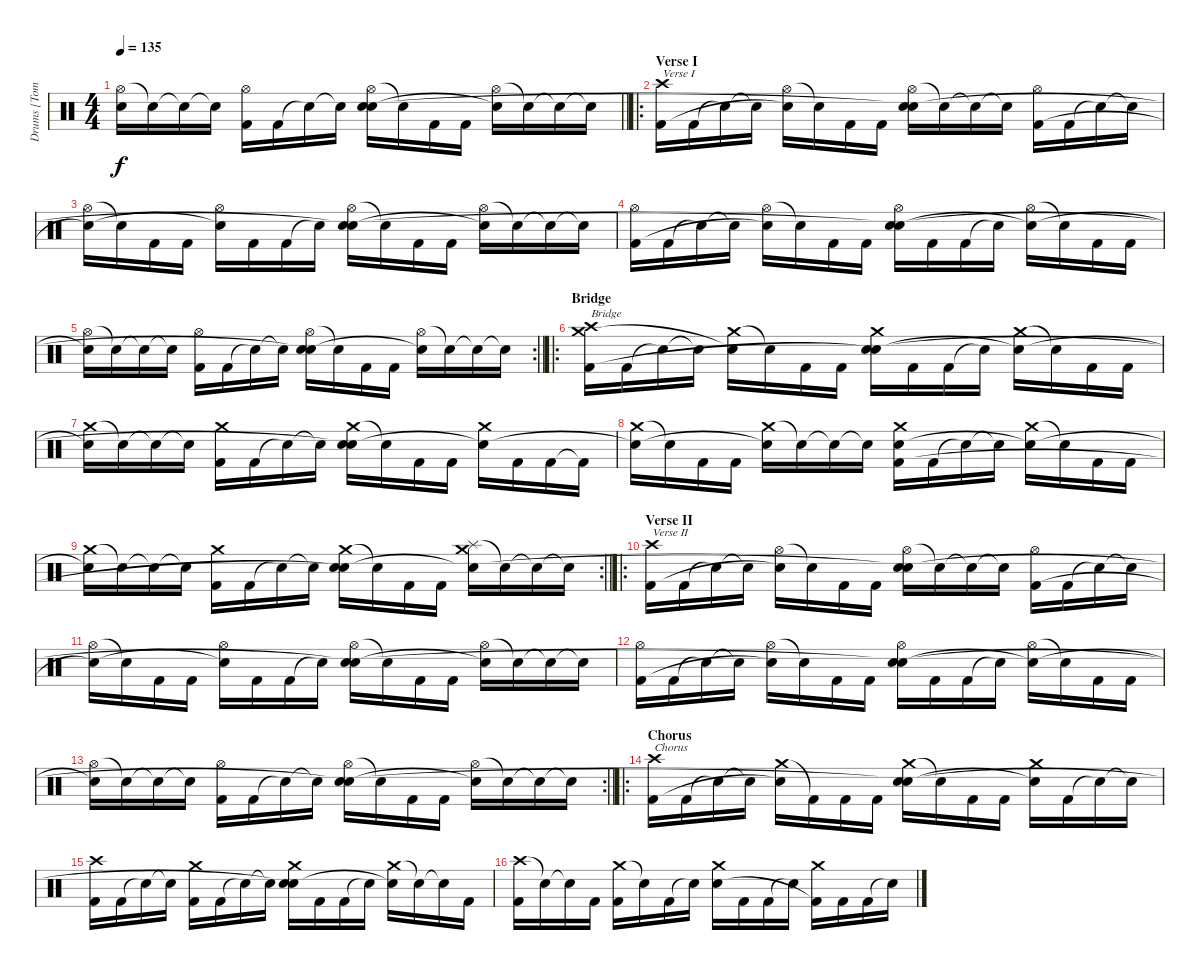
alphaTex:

\track ("Drums [Tomas Haake]" "Drums [Tom") {instrument percussion}
\staff {score}
\articulation defaults
\ts (4 4)
\tempo 135
\clef neutral
\barLineRight lightlight
\ks c
("Hi-Hat (open)" "Snare (hit)"{t}).16{dy f} "Snare (hit)"{t}.16 "Snare (hit)"{t}.16 "Snare (hit)"{t}.16 ("Hi-Hat (open)" "Kick (hit) 2").16 "Kick (hit) 2".16 "Snare (hit)"{t}.16 "Snare (hit)"{t}.16 ("Hi-Hat (open)" "Electric Snare (hit)" "Snare (hit)"{t}).16 "Snare (hit)"{t}.16 "Kick (hit) 2".16 "Kick (hit) 2".16 ("Hi-Hat (open)" "Snare (hit)"{t}).16 "Snare (hit)"{t}.16 "Snare (hit)"{t}.16 "Snare (hit)"{t}.16 |
\ro
\section ("" "Verse I")
("Crash high (hit)" "Kick (hit) 2").16{txt "Verse I"} "Kick (hit) 2".16 "Snare (hit)"{t}.16 "Snare (hit)"{t}.16 ("Hi-Hat (open)" "Snare (hit)"{t}).16 "Snare (hit)"{t}.16 "Kick (hit) 2".16 "Kick (hit) 2".16 ("Hi-Hat (open)" "Electric Snare (hit)" "Snare (hit)"{t}).16 "Snare (hit)"{t}.16 "Snare (hit)"{t}.16 "Snare (hit)"{t}.16 ("Hi-Hat (open)" "Kick (hit) 2").16 "Kick (hit) 2".16 "Snare (hit)"{t}.16 "Snare (hit)"{t}.16 |
("Hi-Hat (open)" "Snare (hit)"{t}).16 "Snare (hit)"{t}.16 "Kick (hit) 2".16 "Kick (hit) 2".16 ("Hi-Hat (open)" "Snare (hit)"{t}).16 "Kick (hit) 2".16 "Kick (hit) 2".16 "Snare (hit)"{t}.16 ("Hi-Hat (open)" "Electric Snare (hit)" "Snare (hit)"{t}).16 "Snare (hit)"{t}.16 "Kick (hit) 2".16 "Kick (hit) 2".16 ("Hi-Hat (open)" "Snare (hit)"{t}).16 "Snare (hit)"{t}.16 "Snare (hit)"{t}.16 "Snare (hit)"{t}.16 |
("Hi-Hat (open)" "Kick (hit) 2").16 "Kick (hit) 2".16 "Snare (hit)"{t}.16 "Snare (hit)"{t}.16 ("Hi-Hat (open)" "Snare (hit)"{t}).16 "Snare (hit)"{t}.16 "Kick (hit) 2".16 "Kick (hit) 2".16 ("Hi-Hat (open)" "Electric Snare (hit)" "Snare (hit)"{t}).16 "Kick (hit) 2".16 "Kick (hit) 2".16 "Snare (hit)"{t}.16 ("Hi-Hat (open)" "Snare (hit)"{t}).16 "Snare (hit)"{t}.16 "Kick (hit) 2".16 "Kick (hit) 2".16 |
\rc 2
\barLineRight lightlight
("Hi-Hat (open)" "Snare (hit)"{t}).16 "Snare (hit)"{t}.16 "Snare (hit)"{t}.16 "Snare (hit)"{t}.16 ("Hi-Hat (open)" "Kick (hit) 2").16 "Kick (hit) 2".16 "Snare (hit)"{t}.16 "Snare (hit)"{t}.16 ("Hi-Hat (open)" "Electric Snare (hit)" "Snare (hit)"{t}).16 "Snare (hit)"{t}.16 "Kick (hit) 2".16 "Kick (hit) 2".16 ("Hi-Hat (open)" "Snare (hit)"{t}).16 "Snare (hit)"{t}.16 "Snare (hit)"{t}.16 "Snare (hit)"{t}.16 |
\ro
\section ("" "Bridge")
("Crash high (hit)" "Crash medium (hit)" "Kick (hit) 2").16{txt "Bridge"} "Kick (hit) 2".16 "Snare (hit)"{t}.16 "Snare (hit)"{t}.16 ("Crash medium (hit)" "Snare (hit)"{t}).16 "Snare (hit)"{t}.16 "Kick (hit) 2".16 "Kick (hit) 2".16 ("Crash medium (hit)" "Electric Snare (hit)" "Snare (hit)"{t}).16 "Kick (hit) 2".16 "Kick (hit) 2".16 "Snare (hit)"{t}.16 ("Crash medium (hit)" "Snare (hit)"{t}).16 "Snare (hit)"{t}.16 "Kick (hit) 2".16 "Kick (hit) 2".16 |
("Crash medium (hit)" "Snare (hit)"{t}).16 "Snare (hit)"{t}.16 "Snare (hit)"{t}.16 "Snare (hit)"{t}.16 ("Crash medium (hit)" "Kick (hit) 2").16 "Kick (hit) 2".16 "Snare (hit)"{t}.16 "Snare (hit)"{t}.16 ("Crash medium (hit)" "Electric Snare (hit)" "Snare (hit)"{t}).16 "Snare (hit)"{t}.16 "Kick (hit) 2".16 "Kick (hit) 2".16 ("Crash medium (hit)" "Snare (hit)"{t}).16 "Kick (hit) 2".16 "Kick (hit) 2".16 "Kick (hit) 2"{t}.16 |
("Crash medium (hit)" "Snare (hit)"{t}).16 "Snare (hit)"{t}.16 "Kick (hit) 2".16 "Kick (hit) 2".16 ("Crash medium (hit)" "Snare (hit)"{t}).16 "Snare (hit)"{t}.16 "Snare (hit)"{t}.16 "Snare (hit)"{t}.16 ("Crash medium (hit)" "Electric Snare (hit)" "Kick (hit) 2").16 "Kick (hit) 2".16 "Snare (hit)"{t}.16 "Snare (hit)"{t}.16 ("Crash medium (hit)" "Snare (hit)"{t}).16 "Snare (hit)"{t}.16 "Kick (hit) 2".16 "Kick (hit) 2".16 |
\rc 2
\barLineRight lightlight
("Crash medium (hit)" "Snare (hit)"{t}).16 "Snare (hit)"{t}.16 "Snare (hit)"{t}.16 "Snare (hit)"{t}.16 ("Crash medium (hit)" "Kick (hit) 2").16 "Kick (hit) 2".16 "Snare (hit)"{t}.16 "Snare (hit)"{t}.16 ("Crash medium (hit)" "Electric Snare (hit)" "Snare (hit)"{t}).16 "Snare (hit)"{t}.16 "Kick (hit) 2".16 "Kick (hit) 2".16 ("Splash (hit)" "Crash medium (hit)" "Snare (hit)"{t}).16 "Snare (hit)"{t}.16 "Snare (hit)"{t}.16 "Snare (hit)"{t}.16 |
\ro
\section ("" "Verse II")
("Crash high (hit)" "Kick (hit) 2").16{txt "Verse II"} "Kick (hit) 2".16 "Snare (hit)"{t}.16 "Snare (hit)"{t}.16 ("Hi-Hat (open)" "Snare (hit)"{t}).16 "Snare (hit)"{t}.16 "Kick (hit) 2".16 "Kick (hit) 2".16 ("Hi-Hat (open)" "Electric Snare (hit)" "Snare (hit)"{t}).16 "Snare (hit)"{t}.16 "Snare (hit)"{t}.16 "Snare (hit)"{t}.16 ("Hi-Hat (open)" "Kick (hit) 2").16 "Kick (hit) 2".16 "Snare (hit)"{t}.16 "Snare (hit)"{t}.16 |
("Hi-Hat (open)" "Snare (hit)"{t}).16 "Snare (hit)"{t}.16 "Kick (hit) 2".16 "Kick (hit) 2".16 ("Hi-Hat (open)" "Snare (hit)"{t}).16 "Kick (hit) 2".16 "Kick (hit) 2".16 "Snare (hit)"{t}.16 ("Hi-Hat (open)" "Electric Snare (hit)" "Snare (hit)"{t}).16 "Snare (hit)"{t}.16 "Kick (hit) 2".16 "Kick (hit) 2".16 ("Hi-Hat (open)" "Snare (hit)"{t}).16 "Snare (hit)"{t}.16 "Snare (hit)"{t}.16 "Snare (hit)"{t}.16 |
("Hi-Hat (open)" "Kick (hit) 2").16 "Kick (hit) 2".16 "Snare (hit)"{t}.16 "Snare (hit)"{t}.16 ("Hi-Hat (open)" "Snare (hit)"{t}).16 "Snare (hit)"{t}.16 "Kick (hit) 2".16 "Kick (hit) 2".16 ("Hi-Hat (open)" "Electric Snare (hit)" "Snare (hit)"{t}).16 "Kick (hit) 2".16 "Kick (hit) 2".16 "Snare (hit)"{t}.16 ("Hi-Hat (open)" "Snare (hit)"{t}).16 "Snare (hit)"{t}.16 "Kick (hit) 2".16 "Kick (hit) 2".16 |
\rc 2
\barLineRight lightlight
("Hi-Hat (open)" "Snare (hit)"{t}).16 "Snare (hit)"{t}.16 "Snare (hit)"{t}.16 "Snare (hit)"{t}.16 ("Hi-Hat (open)" "Kick (hit) 2").16 "Kick (hit) 2".16 "Snare (hit)"{t}.16 "Snare (hit)"{t}.16 ("Hi-Hat (open)" "Electric Snare (hit)" "Snare (hit)"{t}).16 "Snare (hit)"{t}.16 "Kick (hit) 2".16 "Kick (hit) 2".16 ("Hi-Hat (open)" "Snare (hit)"{t}).16 "Snare (hit)"{t}.16 "Snare (hit)"{t}.16 "Snare (hit)"{t}.16 |
\ro
\section ("" "Chorus")
("Crash high (hit)" "Kick (hit) 2").16{txt "Chorus"} "Kick (hit) 2".16 "Snare (hit)"{t}.16 "Snare (hit)"{t}.16 ("Crash medium (hit)" "Snare (hit)"{t}).16 "Kick (hit) 2"{t}.16 "Kick (hit) 2".16 "Kick (hit) 2".16 ("Crash medium (hit)" "Electric Snare (hit)" "Snare (hit)"{t}).16 "Snare (hit)"{t}.16 "Kick (hit) 2".16 "Kick (hit) 2".16 ("Crash medium (hit)" "Snare (hit)"{t}).16 "Kick (hit) 2".16 "Snare (hit)"{t}.16 "Snare (hit)"{t}.16 |
("Crash high (hit)" "Kick (hit) 2").16 "Kick (hit) 2".16 "Snare (hit)"{t}.16 "Snare (hit)"{t}.16 ("Crash medium (hit)" "Kick (hit) 2").16 "Kick (hit) 2".16 "Snare (hit)"{t}.16 "Snare (hit)"{t}.16 ("Crash medium (hit)" "Electric Snare (hit)" "Snare (hit)"{t}).16 "Kick (hit) 2".16 "Kick (hit) 2".16 "Snare (hit)"{t}.16 ("Crash medium (hit)" "Snare (hit)"{t}).16 "Snare (hit)"{t}.16 "Snare (hit)"{t}.16 "Kick (hit) 2".16 |
("Crash high (hit)" "Kick (hit) 2").16 "Snare (hit)"{t}.16 "Snare (hit)"{t}.16 "Kick (hit) 2".16 ("Crash medium (hit)" "Kick (hit) 2").16 "Snare (hit)"{t}.16 "Kick (hit) 2".16 "Snare (hit)"{t}.16 ("Crash medium (hit)" "Electric Snare (hit)").16 "Kick (hit) 2".16 "Kick (hit) 2".16 "Snare (hit)"{t}.16 ("Crash medium (hit)" "Kick (hit) 2"{t}).16 "Kick (hit) 2".16 "Kick (hit) 2".16 "Snare (hit)"{t}.16
